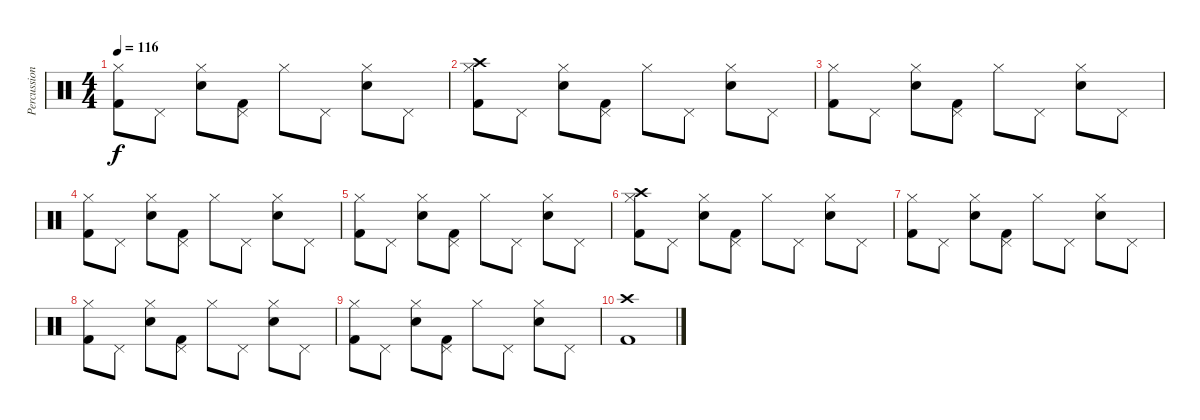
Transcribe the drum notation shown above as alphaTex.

\track ("Percussions" "Percussion") {instrument percussion}
\staff {score}
\articulation defaults
\ts (4 4)
\tempo 116
\clef neutral
\ks c
("Hi-Hat (closed)" "Kick (hit) 2").8{dy f} "Pedal Hi-Hat (hit)".8 ("Hi-Hat (closed)" "Snare (hit) 2").8 ("Pedal Hi-Hat (hit)" "Kick (hit) 2").8 "Hi-Hat (closed)".8 "Pedal Hi-Hat (hit)".8 ("Hi-Hat (closed)" "Snare (hit) 2").8 "Pedal Hi-Hat (hit)".8 |
("Hi-Hat (closed)" "Crash high (hit)" "Kick (hit) 2").8 "Pedal Hi-Hat (hit)".8 ("Hi-Hat (closed)" "Snare (hit) 2").8 ("Pedal Hi-Hat (hit)" "Kick (hit) 2").8 "Hi-Hat (closed)".8 "Pedal Hi-Hat (hit)".8 ("Hi-Hat (closed)" "Snare (hit) 2").8 "Pedal Hi-Hat (hit)".8 |
("Hi-Hat (closed)" "Kick (hit) 2").8 "Pedal Hi-Hat (hit)".8 ("Hi-Hat (closed)" "Snare (hit) 2").8 ("Pedal Hi-Hat (hit)" "Kick (hit) 2").8 "Hi-Hat (closed)".8 "Pedal Hi-Hat (hit)".8 ("Hi-Hat (closed)" "Snare (hit) 2").8 "Pedal Hi-Hat (hit)".8 |
("Hi-Hat (closed)" "Kick (hit) 2").8 "Pedal Hi-Hat (hit)".8 ("Hi-Hat (closed)" "Snare (hit) 2").8 ("Pedal Hi-Hat (hit)" "Kick (hit) 2").8 "Hi-Hat (closed)".8 "Pedal Hi-Hat (hit)".8 ("Hi-Hat (closed)" "Snare (hit) 2").8 "Pedal Hi-Hat (hit)".8 |
("Hi-Hat (closed)" "Kick (hit) 2").8 "Pedal Hi-Hat (hit)".8 ("Hi-Hat (closed)" "Snare (hit) 2").8 ("Pedal Hi-Hat (hit)" "Kick (hit) 2").8 "Hi-Hat (closed)".8 "Pedal Hi-Hat (hit)".8 ("Hi-Hat (closed)" "Snare (hit) 2").8 "Pedal Hi-Hat (hit)".8 |
("Hi-Hat (closed)" "Crash high (hit)" "Kick (hit) 2").8 "Pedal Hi-Hat (hit)".8 ("Hi-Hat (closed)" "Snare (hit) 2").8 ("Pedal Hi-Hat (hit)" "Kick (hit) 2").8 "Hi-Hat (closed)".8 "Pedal Hi-Hat (hit)".8 ("Hi-Hat (closed)" "Snare (hit) 2").8 "Pedal Hi-Hat (hit)".8 |
("Hi-Hat (closed)" "Kick (hit) 2").8 "Pedal Hi-Hat (hit)".8 ("Hi-Hat (closed)" "Snare (hit) 2").8 ("Pedal Hi-Hat (hit)" "Kick (hit) 2").8 "Hi-Hat (closed)".8 "Pedal Hi-Hat (hit)".8 ("Hi-Hat (closed)" "Snare (hit) 2").8 "Pedal Hi-Hat (hit)".8 |
("Hi-Hat (closed)" "Kick (hit) 2").8 "Pedal Hi-Hat (hit)".8 ("Hi-Hat (closed)" "Snare (hit) 2").8 ("Pedal Hi-Hat (hit)" "Kick (hit) 2").8 "Hi-Hat (closed)".8 "Pedal Hi-Hat (hit)".8 ("Hi-Hat (closed)" "Snare (hit) 2").8 "Pedal Hi-Hat (hit)".8 |
("Hi-Hat (closed)" "Kick (hit) 2").8 "Pedal Hi-Hat (hit)".8 ("Hi-Hat (closed)" "Snare (hit) 2").8 ("Pedal Hi-Hat (hit)" "Kick (hit) 2").8 "Hi-Hat (closed)".8 "Pedal Hi-Hat (hit)".8 ("Hi-Hat (closed)" "Snare (hit) 2").8 "Pedal Hi-Hat (hit)".8 |
("Crash high (hit)" "Kick (hit) 2").1
